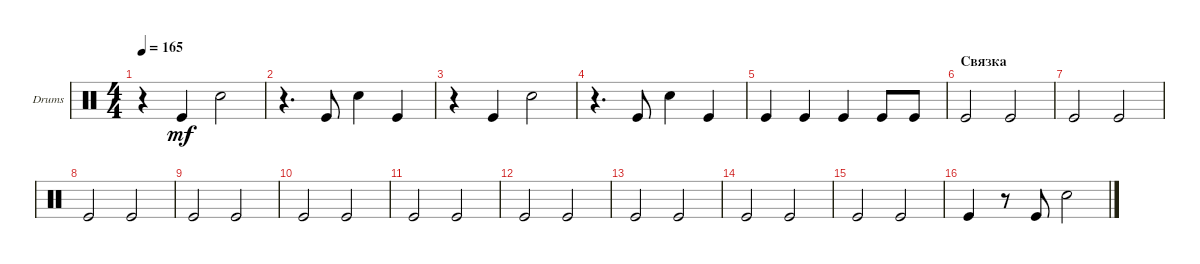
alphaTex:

\bracketExtendMode groupsimilarinstruments
\firstSystemTrackNameOrientation horizontal
\otherSystemsTrackNameOrientation horizontal
\track ("Pen Tapping" "Drums") {instrument percussion}
\staff {score}
\articulation defaults
\ts (4 4)
\tempo 165
\clef neutral
\ks c
r.4{dy mf} "Kick (hit)".4 "Snare (hit) 2".2 |
r.4{d} "Kick (hit)".8 "Snare (hit) 2".4 "Kick (hit)".4 |
r.4 "Kick (hit)".4 "Snare (hit) 2".2 |
r.4{d} "Kick (hit)".8 "Snare (hit) 2".4 "Kick (hit)".4 |
"Kick (hit)".4 "Kick (hit)".4 "Kick (hit)".4 "Kick (hit)".8 "Kick (hit)".8 |
\section ("" "Связка")
\scale
0.377049 "Kick (hit)".2 "Kick (hit)".2 |
\scale
0.333333 "Kick (hit)".2 "Kick (hit)".2 |
\scale
0.333333 "Kick (hit)".2 "Kick (hit)".2 |
\scale
0.333333 "Kick (hit)".2 "Kick (hit)".2 |
\scale
0.333333 "Kick (hit)".2 "Kick (hit)".2 |
\scale
0.333333 "Kick (hit)".2 "Kick (hit)".2 |
\scale
0.333333 "Kick (hit)".2 "Kick (hit)".2 |
\scale
0.333333 "Kick (hit)".2 "Kick (hit)".2 |
\scale
0.333333 "Kick (hit)".2 "Kick (hit)".2 |
\scale
0.333333 "Kick (hit)".2 "Kick (hit)".2 |
"Kick (hit)".4 r.8 "Kick (hit)".8 "Snare (hit) 2".2
